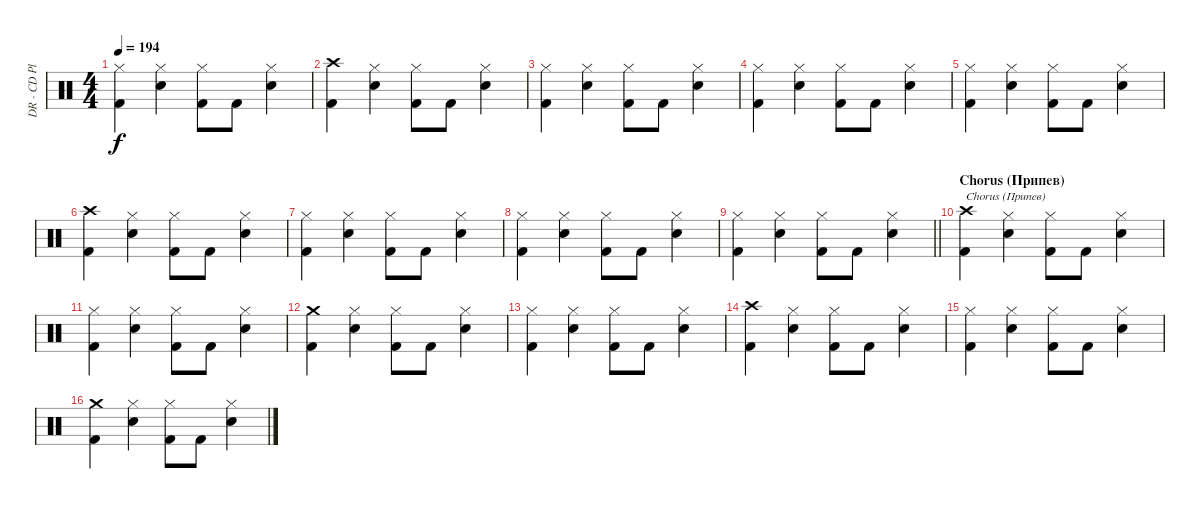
\track ("DR - CD Player" "DR - CD Pl") {instrument percussion}
\staff {score}
\articulation defaults
\ts (4 4)
\tempo 194
\clef neutral
\ks c
("Kick (hit) 2" "Hi-Hat (closed)").4{dy f} ("Snare (hit) 2" "Hi-Hat (closed)").4 ("Kick (hit) 2" "Hi-Hat (closed)").8 "Kick (hit) 2".8 ("Snare (hit) 2" "Hi-Hat (closed)").4 |
("Kick (hit) 2" "Crash high (hit)").4 ("Snare (hit) 2" "Hi-Hat (closed)").4 ("Kick (hit) 2" "Hi-Hat (closed)").8 "Kick (hit) 2".8 ("Snare (hit) 2" "Hi-Hat (closed)").4 |
("Kick (hit) 2" "Hi-Hat (closed)").4 ("Snare (hit) 2" "Hi-Hat (closed)").4 ("Kick (hit) 2" "Hi-Hat (closed)").8 "Kick (hit) 2".8 ("Snare (hit) 2" "Hi-Hat (closed)").4 |
("Kick (hit) 2" "Hi-Hat (closed)").4 ("Snare (hit) 2" "Hi-Hat (closed)").4 ("Kick (hit) 2" "Hi-Hat (closed)").8 "Kick (hit) 2".8 ("Snare (hit) 2" "Hi-Hat (closed)").4 |
("Kick (hit) 2" "Hi-Hat (closed)").4 ("Snare (hit) 2" "Hi-Hat (closed)").4 ("Kick (hit) 2" "Hi-Hat (closed)").8 "Kick (hit) 2".8 ("Snare (hit) 2" "Hi-Hat (closed)").4 |
("Kick (hit) 2" "Crash high (hit)").4 ("Snare (hit) 2" "Hi-Hat (closed)").4 ("Kick (hit) 2" "Hi-Hat (closed)").8 "Kick (hit) 2".8 ("Snare (hit) 2" "Hi-Hat (closed)").4 |
("Kick (hit) 2" "Hi-Hat (closed)").4 ("Snare (hit) 2" "Hi-Hat (closed)").4 ("Kick (hit) 2" "Hi-Hat (closed)").8 "Kick (hit) 2".8 ("Snare (hit) 2" "Hi-Hat (closed)").4 |
("Kick (hit) 2" "Hi-Hat (closed)").4 ("Snare (hit) 2" "Hi-Hat (closed)").4 ("Kick (hit) 2" "Hi-Hat (closed)").8 "Kick (hit) 2".8 ("Snare (hit) 2" "Hi-Hat (closed)").4 |
\barLineRight lightlight
("Kick (hit) 2" "Hi-Hat (closed)").4 ("Snare (hit) 2" "Hi-Hat (closed)").4 ("Kick (hit) 2" "Hi-Hat (closed)").8 "Kick (hit) 2".8 ("Snare (hit) 2" "Hi-Hat (closed)").4 |
\section ("" "Chorus (Припев)")
("Kick (hit) 2" "Crash high (hit)").4{txt "Chorus (Припев)"} ("Snare (hit) 2" "Hi-Hat (closed)").4 ("Kick (hit) 2" "Hi-Hat (closed)").8 "Kick (hit) 2".8 ("Snare (hit) 2" "Hi-Hat (closed)").4 |
("Kick (hit) 2" "Hi-Hat (closed)").4 ("Snare (hit) 2" "Hi-Hat (closed)").4 ("Kick (hit) 2" "Hi-Hat (closed)").8 "Kick (hit) 2".8 ("Snare (hit) 2" "Hi-Hat (closed)").4 |
("Kick (hit) 2" "Crash medium (hit)").4 ("Snare (hit) 2" "Hi-Hat (closed)").4 ("Kick (hit) 2" "Hi-Hat (closed)").8 "Kick (hit) 2".8 ("Snare (hit) 2" "Hi-Hat (closed)").4 |
("Kick (hit) 2" "Hi-Hat (closed)").4 ("Snare (hit) 2" "Hi-Hat (closed)").4 ("Kick (hit) 2" "Hi-Hat (closed)").8 "Kick (hit) 2".8 ("Snare (hit) 2" "Hi-Hat (closed)").4 |
("Kick (hit) 2" "Crash high (hit)").4 ("Snare (hit) 2" "Hi-Hat (closed)").4 ("Kick (hit) 2" "Hi-Hat (closed)").8 "Kick (hit) 2".8 ("Snare (hit) 2" "Hi-Hat (closed)").4 |
("Kick (hit) 2" "Hi-Hat (closed)").4 ("Snare (hit) 2" "Hi-Hat (closed)").4 ("Kick (hit) 2" "Hi-Hat (closed)").8 "Kick (hit) 2".8 ("Snare (hit) 2" "Hi-Hat (closed)").4 |
("Kick (hit) 2" "Crash medium (hit)").4 ("Snare (hit) 2" "Hi-Hat (closed)").4 ("Kick (hit) 2" "Hi-Hat (closed)").8 "Kick (hit) 2".8 ("Snare (hit) 2" "Hi-Hat (closed)").4
